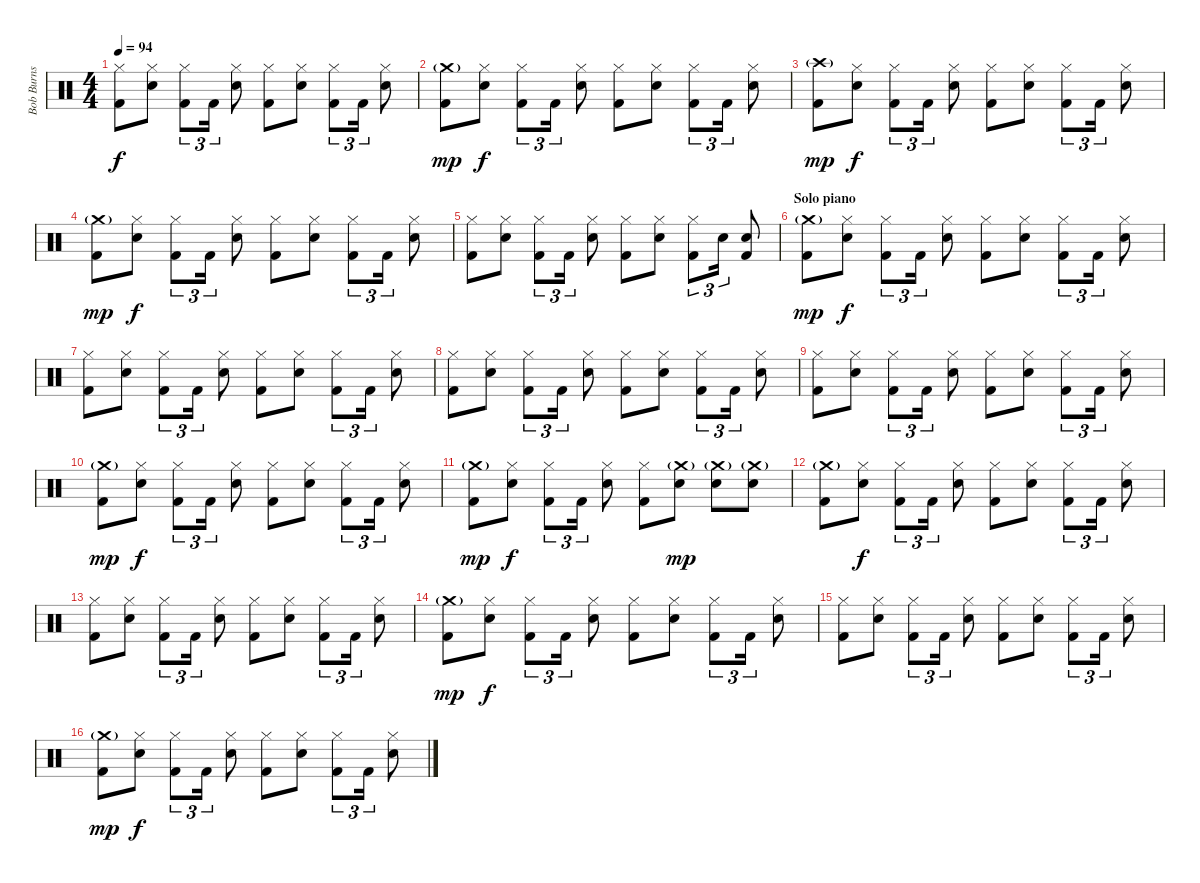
\track ("Bob Burns (drums)" "Bob Burns ") {instrument percussion}
\staff {score}
\articulation defaults
\ts (4 4)
\tempo 94
\clef neutral
\ks c
("Hi-Hat (closed)" "Kick (hit) 2").8{dy f} ("Hi-Hat (closed)" "Electric Snare (hit)").8 ("Hi-Hat (closed)" "Kick (hit) 2").8{tu (3 2)} "Kick (hit) 2".16{tu (3 2)} ("Hi-Hat (closed)" "Electric Snare (hit)").8 ("Hi-Hat (closed)" "Kick (hit) 2").8 ("Hi-Hat (closed)" "Electric Snare (hit)").8 ("Hi-Hat (closed)" "Kick (hit) 2").8{tu (3 2)} "Kick (hit) 2".16{tu (3 2)} ("Hi-Hat (closed)" "Electric Snare (hit)").8 |
("Crash medium (hit)"{g} "Kick (hit) 2").8{dy mp} ("Hi-Hat (closed)" "Electric Snare (hit)").8{dy f} ("Hi-Hat (closed)" "Kick (hit) 2").8{tu (3 2)} "Kick (hit) 2".16{tu (3 2)} ("Hi-Hat (closed)" "Electric Snare (hit)").8 ("Hi-Hat (closed)" "Kick (hit) 2").8 ("Hi-Hat (closed)" "Electric Snare (hit)").8 ("Hi-Hat (closed)" "Kick (hit) 2").8{tu (3 2)} "Kick (hit) 2".16{tu (3 2)} ("Hi-Hat (closed)" "Electric Snare (hit)").8 |
("Crash high (hit)"{g} "Kick (hit) 2").8{dy mp} ("Hi-Hat (closed)" "Electric Snare (hit)").8{dy f} ("Hi-Hat (closed)" "Kick (hit) 2").8{tu (3 2)} "Kick (hit) 2".16{tu (3 2)} ("Hi-Hat (closed)" "Electric Snare (hit)").8 ("Hi-Hat (closed)" "Kick (hit) 2").8 ("Hi-Hat (closed)" "Electric Snare (hit)").8 ("Hi-Hat (closed)" "Kick (hit) 2").8{tu (3 2)} "Kick (hit) 2".16{tu (3 2)} ("Hi-Hat (closed)" "Electric Snare (hit)").8 |
("Crash medium (hit)"{g} "Kick (hit) 2").8{dy mp} ("Hi-Hat (closed)" "Electric Snare (hit)").8{dy f} ("Hi-Hat (closed)" "Kick (hit) 2").8{tu (3 2)} "Kick (hit) 2".16{tu (3 2)} ("Hi-Hat (closed)" "Electric Snare (hit)").8 ("Hi-Hat (closed)" "Kick (hit) 2").8 ("Hi-Hat (closed)" "Electric Snare (hit)").8 ("Hi-Hat (closed)" "Kick (hit) 2").8{tu (3 2)} "Kick (hit) 2".16{tu (3 2)} ("Hi-Hat (closed)" "Electric Snare (hit)").8 |
("Hi-Hat (closed)" "Kick (hit) 2").8 ("Hi-Hat (closed)" "Electric Snare (hit)").8 ("Hi-Hat (closed)" "Kick (hit) 2").8{tu (3 2)} "Kick (hit) 2".16{tu (3 2)} ("Hi-Hat (closed)" "Electric Snare (hit)").8 ("Hi-Hat (closed)" "Kick (hit) 2").8 ("Hi-Hat (closed)" "Electric Snare (hit)").8 ("Hi-Hat (closed)" "Kick (hit) 2").8{tu (3 2)} "Electric Snare (hit)".16{tu (3 2)} ("Electric Snare (hit)" "Kick (hit) 2").8 |
\section ("" "Solo piano")
("Crash medium (hit)"{g} "Kick (hit) 2").8{dy mp} ("Hi-Hat (closed)" "Electric Snare (hit)").8{dy f} ("Hi-Hat (closed)" "Kick (hit) 2").8{tu (3 2)} "Kick (hit) 2".16{tu (3 2)} ("Hi-Hat (closed)" "Electric Snare (hit)").8 ("Hi-Hat (closed)" "Kick (hit) 2").8 ("Hi-Hat (closed)" "Electric Snare (hit)").8 ("Hi-Hat (closed)" "Kick (hit) 2").8{tu (3 2)} "Kick (hit) 2".16{tu (3 2)} ("Hi-Hat (closed)" "Electric Snare (hit)").8 |
("Hi-Hat (closed)" "Kick (hit) 2").8 ("Hi-Hat (closed)" "Electric Snare (hit)").8 ("Hi-Hat (closed)" "Kick (hit) 2").8{tu (3 2)} "Kick (hit) 2".16{tu (3 2)} ("Hi-Hat (closed)" "Electric Snare (hit)").8 ("Hi-Hat (closed)" "Kick (hit) 2").8 ("Hi-Hat (closed)" "Electric Snare (hit)").8 ("Hi-Hat (closed)" "Kick (hit) 2").8{tu (3 2)} "Kick (hit) 2".16{tu (3 2)} ("Hi-Hat (closed)" "Electric Snare (hit)").8 |
("Hi-Hat (closed)" "Kick (hit) 2").8 ("Hi-Hat (closed)" "Electric Snare (hit)").8 ("Hi-Hat (closed)" "Kick (hit) 2").8{tu (3 2)} "Kick (hit) 2".16{tu (3 2)} ("Hi-Hat (closed)" "Electric Snare (hit)").8 ("Hi-Hat (closed)" "Kick (hit) 2").8 ("Hi-Hat (closed)" "Electric Snare (hit)").8 ("Hi-Hat (closed)" "Kick (hit) 2").8{tu (3 2)} "Kick (hit) 2".16{tu (3 2)} ("Hi-Hat (closed)" "Electric Snare (hit)").8 |
("Hi-Hat (closed)" "Kick (hit) 2").8 ("Hi-Hat (closed)" "Electric Snare (hit)").8 ("Hi-Hat (closed)" "Kick (hit) 2").8{tu (3 2)} "Kick (hit) 2".16{tu (3 2)} ("Hi-Hat (closed)" "Electric Snare (hit)").8 ("Hi-Hat (closed)" "Kick (hit) 2").8 ("Hi-Hat (closed)" "Electric Snare (hit)").8 ("Hi-Hat (closed)" "Kick (hit) 2").8{tu (3 2)} "Kick (hit) 2".16{tu (3 2)} ("Hi-Hat (closed)" "Electric Snare (hit)").8 |
("Crash medium (hit)"{g} "Kick (hit) 2").8{dy mp} ("Hi-Hat (closed)" "Electric Snare (hit)").8{dy f} ("Hi-Hat (closed)" "Kick (hit) 2").8{tu (3 2)} "Kick (hit) 2".16{tu (3 2)} ("Hi-Hat (closed)" "Electric Snare (hit)").8 ("Hi-Hat (closed)" "Kick (hit) 2").8 ("Hi-Hat (closed)" "Electric Snare (hit)").8 ("Hi-Hat (closed)" "Kick (hit) 2").8{tu (3 2)} "Kick (hit) 2".16{tu (3 2)} ("Hi-Hat (closed)" "Electric Snare (hit)").8 |
("Crash medium (hit)"{g} "Kick (hit) 2").8{dy mp} ("Hi-Hat (closed)" "Electric Snare (hit)").8{dy f} ("Hi-Hat (closed)" "Kick (hit) 2").8{tu (3 2)} "Kick (hit) 2".16{tu (3 2)} ("Hi-Hat (closed)" "Electric Snare (hit)").8 ("Hi-Hat (closed)" "Kick (hit) 2").8 ("Crash medium (hit)"{g} "Electric Snare (hit)").8{dy mp} ("Crash medium (hit)"{g} "Electric Snare (hit)").8 ("Crash medium (hit)"{g} "Electric Snare (hit)").8 |
("Crash medium (hit)"{g} "Kick (hit) 2").8 ("Hi-Hat (closed)" "Electric Snare (hit)").8{dy f} ("Hi-Hat (closed)" "Kick (hit) 2").8{tu (3 2)} "Kick (hit) 2".16{tu (3 2)} ("Hi-Hat (closed)" "Electric Snare (hit)").8 ("Hi-Hat (closed)" "Kick (hit) 2").8 ("Hi-Hat (closed)" "Electric Snare (hit)").8 ("Hi-Hat (closed)" "Kick (hit) 2").8{tu (3 2)} "Kick (hit) 2".16{tu (3 2)} ("Hi-Hat (closed)" "Electric Snare (hit)").8 |
("Hi-Hat (closed)" "Kick (hit) 2").8 ("Hi-Hat (closed)" "Electric Snare (hit)").8 ("Hi-Hat (closed)" "Kick (hit) 2").8{tu (3 2)} "Kick (hit) 2".16{tu (3 2)} ("Hi-Hat (closed)" "Electric Snare (hit)").8 ("Hi-Hat (closed)" "Kick (hit) 2").8 ("Hi-Hat (closed)" "Electric Snare (hit)").8 ("Hi-Hat (closed)" "Kick (hit) 2").8{tu (3 2)} "Kick (hit) 2".16{tu (3 2)} ("Hi-Hat (closed)" "Electric Snare (hit)").8 |
("Crash medium (hit)"{g} "Kick (hit) 2").8{dy mp} ("Hi-Hat (closed)" "Electric Snare (hit)").8{dy f} ("Hi-Hat (closed)" "Kick (hit) 2").8{tu (3 2)} "Kick (hit) 2".16{tu (3 2)} ("Hi-Hat (closed)" "Electric Snare (hit)").8 ("Hi-Hat (closed)" "Kick (hit) 2").8 ("Hi-Hat (closed)" "Electric Snare (hit)").8 ("Hi-Hat (closed)" "Kick (hit) 2").8{tu (3 2)} "Kick (hit) 2".16{tu (3 2)} ("Hi-Hat (closed)" "Electric Snare (hit)").8 |
("Hi-Hat (closed)" "Kick (hit) 2").8 ("Hi-Hat (closed)" "Electric Snare (hit)").8 ("Hi-Hat (closed)" "Kick (hit) 2").8{tu (3 2)} "Kick (hit) 2".16{tu (3 2)} ("Hi-Hat (closed)" "Electric Snare (hit)").8 ("Hi-Hat (closed)" "Kick (hit) 2").8 ("Hi-Hat (closed)" "Electric Snare (hit)").8 ("Hi-Hat (closed)" "Kick (hit) 2").8{tu (3 2)} "Kick (hit) 2".16{tu (3 2)} ("Hi-Hat (closed)" "Electric Snare (hit)").8 |
("Crash medium (hit)"{g} "Kick (hit) 2").8{dy mp} ("Hi-Hat (closed)" "Electric Snare (hit)").8{dy f} ("Hi-Hat (closed)" "Kick (hit) 2").8{tu (3 2)} "Kick (hit) 2".16{tu (3 2)} ("Hi-Hat (closed)" "Electric Snare (hit)").8 ("Hi-Hat (closed)" "Kick (hit) 2").8 ("Hi-Hat (closed)" "Electric Snare (hit)").8 ("Hi-Hat (closed)" "Kick (hit) 2").8{tu (3 2)} "Kick (hit) 2".16{tu (3 2)} ("Hi-Hat (closed)" "Electric Snare (hit)").8
